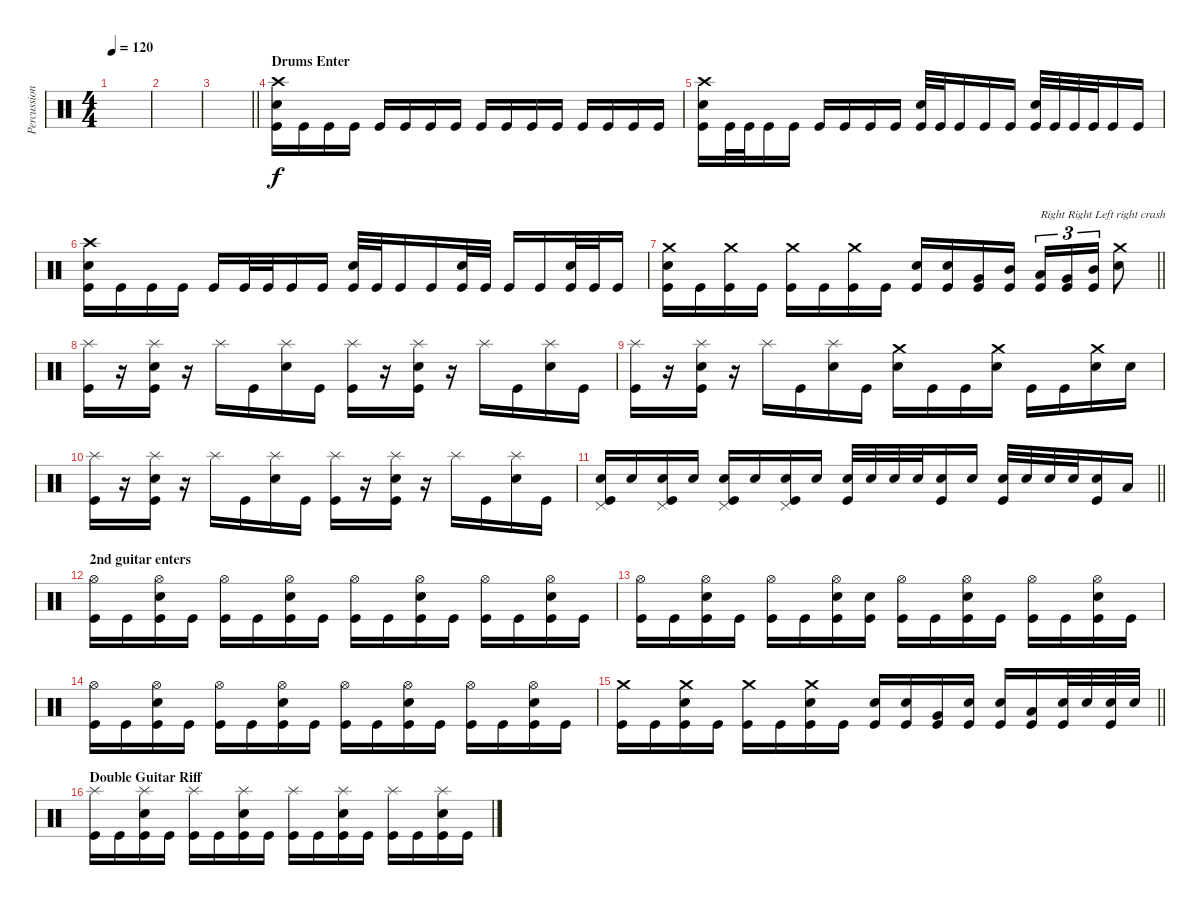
\track ("Percussion (Aksu)" "Percussion") {instrument percussion}
\staff {score}
\articulation defaults
\ts (4 4)
\tempo 120
\clef neutral
\ks c
|
|
\barLineRight lightlight
|
\section ("" "Drums Enter")
("Crash high (hit)" "Snare (hit) 2" "Kick (hit)").16 "Kick (hit)".16 "Kick (hit)".16 "Kick (hit)".16 "Kick (hit)".16 "Kick (hit)".16 "Kick (hit)".16 "Kick (hit)".16 "Kick (hit)".16 "Kick (hit)".16 "Kick (hit)".16 "Kick (hit)".16 "Kick (hit)".16 "Kick (hit)".16 "Kick (hit)".16 "Kick (hit)".16 |
("Crash high (hit)" "Snare (hit) 2" "Kick (hit)").16 "Kick (hit)".32 "Kick (hit)".32 "Kick (hit)".16 "Kick (hit)".16 "Kick (hit)".16 "Kick (hit)".16 "Kick (hit)".16 "Kick (hit)".16 ("Snare (hit) 2" "Kick (hit)").32 "Kick (hit)".32 "Kick (hit)".16 "Kick (hit)".16 "Kick (hit)".16 ("Snare (hit) 2" "Kick (hit)").32 "Kick (hit)".32 "Kick (hit)".32 "Kick (hit)".32 "Kick (hit)".16 "Kick (hit)".16 |
("Crash high (hit)" "Snare (hit) 2" "Kick (hit)").16 "Kick (hit)".16 "Kick (hit)".16 "Kick (hit)".16 "Kick (hit)".16 "Kick (hit)".32 "Kick (hit)".32 "Kick (hit)".16 "Kick (hit)".16 ("Snare (hit) 2" "Kick (hit)").32 "Kick (hit)".32 "Kick (hit)".16 "Kick (hit)".16 ("Snare (hit) 2" "Kick (hit)").32 "Kick (hit)".32 "Kick (hit)".16 "Kick (hit)".16 ("Snare (hit) 2" "Kick (hit)").32 "Kick (hit)".32 "Kick (hit)".16 |
\barLineRight lightlight
("Crash medium (hit)" "Snare (hit) 2" "Kick (hit)").16 "Kick (hit)".16 ("Crash medium (hit)" "Kick (hit)").16 "Kick (hit)".16 ("Crash medium (hit)" "Kick (hit)").16{beam Down} "Kick (hit)".16{beam Down} ("Crash medium (hit)" "Kick (hit)").16{beam Down} "Kick (hit)".16{beam Down} ("Snare (hit) 2" "Kick (hit)").16 ("Snare (hit) 2" "Kick (hit)").16 ("Very Low Tom (hit)" "Kick (hit)").16 ("Mid Tom (hit)" "Kick (hit)").16 ("Low Tom (hit)" "Kick (hit)").16{tu (3 2) txt "Right Right Left right crash"} ("Very Low Tom (hit)" "Kick (hit)").16{tu (3 2)} ("Mid Tom (hit)" "Kick (hit)").16{tu (3 2)} ("Crash medium (hit)" "Snare (hit) 2").8 |
\section ("" "")
("Splash (hit)" "Kick (hit)").16 r.16 ("Splash (hit)" "Snare (hit) 2" "Kick (hit)").16 r.16 "Splash (hit)".16 "Kick (hit)".16 ("Splash (hit)" "Snare (hit) 2").16 "Kick (hit)".16 ("Splash (hit)" "Kick (hit)").16 r.16 ("Splash (hit)" "Snare (hit) 2" "Kick (hit)").16 r.16 "Splash (hit)".16 "Kick (hit)".16 ("Splash (hit)" "Snare (hit) 2").16 "Kick (hit)".16 |
("Splash (hit)" "Kick (hit)").16 r.16 ("Splash (hit)" "Snare (hit) 2" "Kick (hit)").16 r.16 "Splash (hit)".16 "Kick (hit)".16 ("Splash (hit)" "Snare (hit) 2").16 "Kick (hit)".16 ("Crash medium (hit)" "Snare (hit) 2").16 "Kick (hit)".16 "Kick (hit)".16 ("Crash medium (hit)" "Snare (hit) 2").16 "Kick (hit)".16 "Kick (hit)".16 ("Crash medium (hit)" "Snare (hit) 2").16 "Snare (hit) 2".16 |
("Splash (hit)" "Kick (hit)").16 r.16 ("Splash (hit)" "Snare (hit) 2" "Kick (hit)").16 r.16 "Splash (hit)".16 "Kick (hit)".16 ("Splash (hit)" "Snare (hit) 2").16 "Kick (hit)".16 ("Splash (hit)" "Kick (hit)").16 r.16 ("Splash (hit)" "Snare (hit) 2" "Kick (hit)").16 r.16 "Splash (hit)".16 "Kick (hit)".16 ("Splash (hit)" "Snare (hit) 2").16 "Kick (hit)".16 |
\barLineRight lightlight
("Pedal Hi-Hat (hit)" "Snare (hit) 2" "Kick (hit)").16{volume 8} "Snare (hit) 2".16{volume 13} ("Pedal Hi-Hat (hit)" "Snare (hit) 2" "Kick (hit)").16 "Snare (hit) 2".16 ("Pedal Hi-Hat (hit)" "Snare (hit) 2" "Kick (hit)").16 "Snare (hit) 2".16 ("Pedal Hi-Hat (hit)" "Snare (hit) 2" "Kick (hit)").16 "Snare (hit) 2".16 ("Snare (hit) 2" "Kick (hit)").32 "Snare (hit) 2".32 "Snare (hit) 2".32 "Snare (hit) 2".32 ("Snare (hit) 2" "Kick (hit)").16 "Snare (hit) 2".16 ("Snare (hit) 2" "Kick (hit)").32 "Snare (hit) 2".32 "Snare (hit) 2".32 "Snare (hit) 2".32 ("Snare (hit) 2" "Kick (hit)").16 "Low Tom (hit)".16 |
\section ("" "2nd guitar enters")
("Hi-Hat (open)" "Kick (hit)").16 "Kick (hit)".16 ("Hi-Hat (open)" "Snare (hit) 2" "Kick (hit)").16 "Kick (hit)".16 ("Hi-Hat (open)" "Kick (hit)").16 "Kick (hit)".16 ("Hi-Hat (open)" "Snare (hit) 2" "Kick (hit)").16 "Kick (hit)".16 ("Hi-Hat (open)" "Kick (hit)").16 "Kick (hit)".16 ("Hi-Hat (open)" "Snare (hit) 2" "Kick (hit)").16 "Kick (hit)".16 ("Hi-Hat (open)" "Kick (hit)").16 "Kick (hit)".16 ("Hi-Hat (open)" "Snare (hit) 2" "Kick (hit)").16 "Kick (hit)".16 |
("Hi-Hat (open)" "Kick (hit)").16 "Kick (hit)".16 ("Hi-Hat (open)" "Snare (hit) 2" "Kick (hit)").16 "Kick (hit)".16 ("Hi-Hat (open)" "Kick (hit)").16 "Kick (hit)".16 ("Hi-Hat (open)" "Snare (hit) 2" "Kick (hit)").16 ("Snare (hit) 2" "Kick (hit)").16 ("Hi-Hat (open)" "Kick (hit)").16 "Kick (hit)".16 ("Hi-Hat (open)" "Snare (hit) 2" "Kick (hit)").16 "Kick (hit)".16 ("Hi-Hat (open)" "Kick (hit)").16 "Kick (hit)".16 ("Hi-Hat (open)" "Snare (hit) 2" "Kick (hit)").16 "Kick (hit)".16 |
("Hi-Hat (open)" "Kick (hit)").16 "Kick (hit)".16 ("Hi-Hat (open)" "Snare (hit) 2" "Kick (hit)").16 "Kick (hit)".16 ("Hi-Hat (open)" "Kick (hit)").16 "Kick (hit)".16 ("Hi-Hat (open)" "Snare (hit) 2" "Kick (hit)").16 "Kick (hit)".16 ("Hi-Hat (open)" "Kick (hit)").16 "Kick (hit)".16 ("Hi-Hat (open)" "Snare (hit) 2" "Kick (hit)").16 "Kick (hit)".16 ("Hi-Hat (open)" "Kick (hit)").16 "Kick (hit)".16 ("Hi-Hat (open)" "Snare (hit) 2" "Kick (hit)").16 "Kick (hit)".16 |
\barLineRight lightlight
("Crash medium (hit)" "Kick (hit)").16 "Kick (hit)".16 ("Crash medium (hit)" "Snare (hit) 2" "Kick (hit)").16 "Kick (hit)".16 ("Crash medium (hit)" "Kick (hit)").16 "Kick (hit)".16 ("Crash medium (hit)" "Snare (hit) 2" "Kick (hit)").16 "Kick (hit)".16 ("Snare (hit) 2" "Kick (hit)").16 ("Snare (hit) 2" "Kick (hit)").16 ("Very Low Tom (hit)" "Kick (hit)").16 ("Snare (hit) 2" "Kick (hit)").16 ("Snare (hit) 2" "Kick (hit)").16 ("Low Floor Tom (hit)" "Kick (hit)").16 ("Snare (hit) 2" "Kick (hit)").32 "Snare (hit) 2".32 ("Snare (hit) 2" "Kick (hit)").32 "Snare (hit) 2".32 |
\section ("" "Double Guitar Riff")
("Splash (hit)" "Kick (hit)").16 "Kick (hit)".16 ("Splash (hit)" "Snare (hit) 2" "Kick (hit)").16 "Kick (hit)".16 ("Splash (hit)" "Kick (hit)").16 "Kick (hit)".16 ("Splash (hit)" "Snare (hit) 2" "Kick (hit)").16 "Kick (hit)".16 ("Splash (hit)" "Kick (hit)").16 "Kick (hit)".16 ("Splash (hit)" "Snare (hit) 2" "Kick (hit)").16 "Kick (hit)".16 ("Splash (hit)" "Kick (hit)").16 "Kick (hit)".16 ("Splash (hit)" "Snare (hit) 2" "Kick (hit)").16 "Kick (hit)".16
